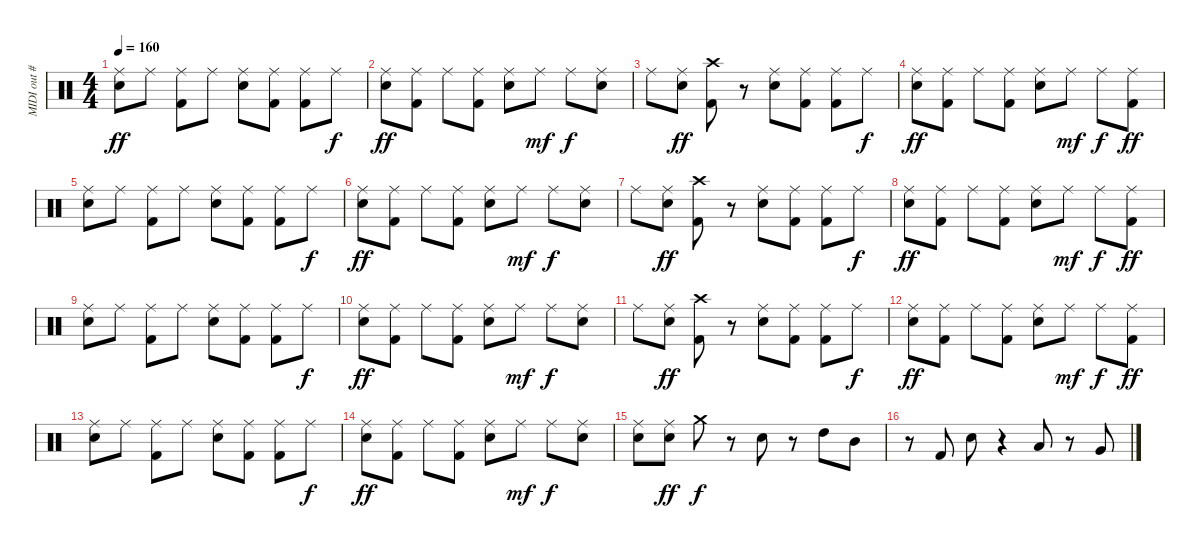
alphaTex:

\track ("MIDI out #4" "MIDI out #") {instrument percussion}
\staff {score}
\articulation defaults
\ts (4 4)
\tempo 160
\clef neutral
\ks c
("Ride (middle)" "Snare (hit) 2").8{dy ff} "Ride (middle)".8 ("Ride (middle)" "Kick (hit) 2").8 "Ride (middle)".8 ("Ride (middle)" "Snare (hit) 2").8 ("Ride (middle)" "Kick (hit) 2").8 ("Ride (middle)" "Kick (hit) 2").8 "Ride (middle)".8{dy f} |
("Ride (middle)" "Snare (hit) 2").8{dy ff} ("Ride (middle)" "Kick (hit) 2").8 "Ride (middle)".8 ("Ride (middle)" "Kick (hit) 2").8 ("Ride (middle)" "Snare (hit) 2").8 "Ride (middle)".8{dy mf} "Ride (middle)".8{dy f} ("Snare (hit) 2" "Ride (middle)").8 |
"Ride (middle)".8 ("Snare (hit) 2" "Ride (middle)").8{dy ff} ("Crash high (hit)" "Kick (hit) 2").8 r.8 ("Ride (middle)" "Snare (hit) 2").8 ("Ride (middle)" "Kick (hit) 2").8 ("Ride (middle)" "Kick (hit) 2").8 "Ride (middle)".8{dy f} |
("Ride (middle)" "Snare (hit) 2").8{dy ff} ("Ride (middle)" "Kick (hit) 2").8 "Ride (middle)".8 ("Ride (middle)" "Kick (hit) 2").8 ("Ride (middle)" "Snare (hit) 2").8 "Ride (middle)".8{dy mf} "Ride (middle)".8{dy f} ("Ride (middle)" "Kick (hit) 2").8{dy ff} |
("Ride (middle)" "Snare (hit) 2").8 "Ride (middle)".8 ("Ride (middle)" "Kick (hit) 2").8 "Ride (middle)".8 ("Ride (middle)" "Snare (hit) 2").8 ("Ride (middle)" "Kick (hit) 2").8 ("Ride (middle)" "Kick (hit) 2").8 "Ride (middle)".8{dy f} |
("Ride (middle)" "Snare (hit) 2").8{dy ff} ("Ride (middle)" "Kick (hit) 2").8 "Ride (middle)".8 ("Ride (middle)" "Kick (hit) 2").8 ("Ride (middle)" "Snare (hit) 2").8 "Ride (middle)".8{dy mf} "Ride (middle)".8{dy f} ("Snare (hit) 2" "Ride (middle)").8 |
"Ride (middle)".8 ("Snare (hit) 2" "Ride (middle)").8{dy ff} ("Crash high (hit)" "Kick (hit) 2").8 r.8 ("Ride (middle)" "Snare (hit) 2").8 ("Ride (middle)" "Kick (hit) 2").8 ("Ride (middle)" "Kick (hit) 2").8 "Ride (middle)".8{dy f} |
("Ride (middle)" "Snare (hit) 2").8{dy ff} ("Ride (middle)" "Kick (hit) 2").8 "Ride (middle)".8 ("Ride (middle)" "Kick (hit) 2").8 ("Ride (middle)" "Snare (hit) 2").8 "Ride (middle)".8{dy mf} "Ride (middle)".8{dy f} ("Ride (middle)" "Kick (hit) 2").8{dy ff} |
("Ride (middle)" "Snare (hit) 2").8 "Ride (middle)".8 ("Ride (middle)" "Kick (hit) 2").8 "Ride (middle)".8 ("Ride (middle)" "Snare (hit) 2").8 ("Ride (middle)" "Kick (hit) 2").8 ("Ride (middle)" "Kick (hit) 2").8 "Ride (middle)".8{dy f} |
("Ride (middle)" "Snare (hit) 2").8{dy ff} ("Ride (middle)" "Kick (hit) 2").8 "Ride (middle)".8 ("Ride (middle)" "Kick (hit) 2").8 ("Ride (middle)" "Snare (hit) 2").8 "Ride (middle)".8{dy mf} "Ride (middle)".8{dy f} ("Snare (hit) 2" "Ride (middle)").8 |
"Ride (middle)".8 ("Snare (hit) 2" "Ride (middle)").8{dy ff} ("Crash high (hit)" "Kick (hit) 2").8 r.8 ("Ride (middle)" "Snare (hit) 2").8 ("Ride (middle)" "Kick (hit) 2").8 ("Ride (middle)" "Kick (hit) 2").8 "Ride (middle)".8{dy f} |
("Ride (middle)" "Snare (hit) 2").8{dy ff} ("Ride (middle)" "Kick (hit) 2").8 "Ride (middle)".8 ("Ride (middle)" "Kick (hit) 2").8 ("Ride (middle)" "Snare (hit) 2").8 "Ride (middle)".8{dy mf} "Ride (middle)".8{dy f} ("Ride (middle)" "Kick (hit) 2").8{dy ff} |
("Ride (middle)" "Snare (hit) 2").8 "Ride (middle)".8 ("Ride (middle)" "Kick (hit) 2").8 "Ride (middle)".8 ("Ride (middle)" "Snare (hit) 2").8 ("Ride (middle)" "Kick (hit) 2").8 ("Ride (middle)" "Kick (hit) 2").8 "Ride (middle)".8{dy f} |
("Ride (middle)" "Snare (hit) 2").8{dy ff} ("Ride (middle)" "Kick (hit) 2").8 "Ride (middle)".8 ("Ride (middle)" "Kick (hit) 2").8 ("Ride (middle)" "Snare (hit) 2").8 "Ride (middle)".8{dy mf} "Ride (middle)".8{dy f} ("Snare (hit) 2" "Ride (middle)").8 |
("Snare (hit) 2" "Ride (middle)").8 ("Snare (hit) 2" "Ride (middle)").8{dy ff} "Crash medium (hit)".8{dy f} r.8 "Snare (hit) 2".8 r.8 "High Tom (hit)".8 "Mid Tom (hit)".8 |
r.8 "Kick (hit) 2".8 "Snare (hit) 2".8 r.4 "Low Tom (hit)".8 r.8 "Very Low Tom (hit)".8
